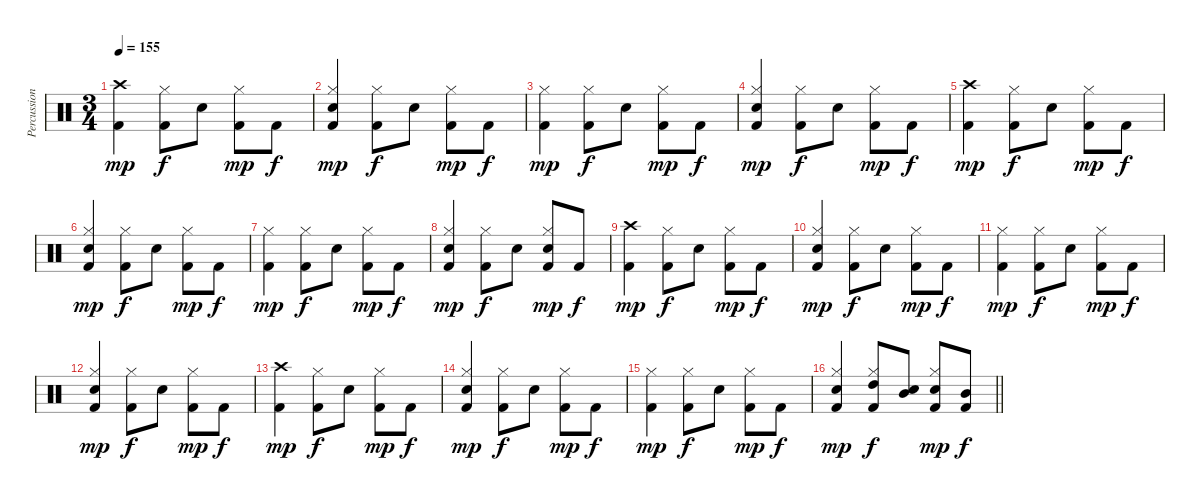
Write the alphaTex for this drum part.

\track ("Percussion" "Percussion") {instrument percussion}
\staff {score}
\articulation defaults
\ts (3 4)
\tempo 155
\clef neutral
\ks c
("Crash high (hit)" "Kick (hit) 2").4{dy mp} ("Hi-Hat (closed)" "Kick (hit) 2").8{dy f} "Snare (hit) 2".8 ("Hi-Hat (closed)" "Kick (hit) 2").8{dy mp} "Kick (hit) 2".8{dy f} |
("Hi-Hat (closed)" "Snare (hit) 2" "Kick (hit) 2").4{dy mp} ("Hi-Hat (closed)" "Kick (hit) 2").8{dy f} "Snare (hit) 2".8 ("Hi-Hat (closed)" "Kick (hit) 2").8{dy mp} "Kick (hit) 2".8{dy f} |
("Hi-Hat (closed)" "Kick (hit) 2").4{dy mp} ("Hi-Hat (closed)" "Kick (hit) 2").8{dy f} "Snare (hit) 2".8 ("Hi-Hat (closed)" "Kick (hit) 2").8{dy mp} "Kick (hit) 2".8{dy f} |
("Hi-Hat (closed)" "Snare (hit) 2" "Kick (hit) 2").4{dy mp} ("Hi-Hat (closed)" "Kick (hit) 2").8{dy f} "Snare (hit) 2".8 ("Hi-Hat (closed)" "Kick (hit) 2").8{dy mp} "Kick (hit) 2".8{dy f} |
("Crash high (hit)" "Kick (hit) 2").4{dy mp} ("Hi-Hat (closed)" "Kick (hit) 2").8{dy f} "Snare (hit) 2".8 ("Hi-Hat (closed)" "Kick (hit) 2").8{dy mp} "Kick (hit) 2".8{dy f} |
("Hi-Hat (closed)" "Snare (hit) 2" "Kick (hit) 2").4{dy mp} ("Hi-Hat (closed)" "Kick (hit) 2").8{dy f} "Snare (hit) 2".8 ("Hi-Hat (closed)" "Kick (hit) 2").8{dy mp} "Kick (hit) 2".8{dy f} |
("Hi-Hat (closed)" "Kick (hit) 2").4{dy mp} ("Hi-Hat (closed)" "Kick (hit) 2").8{dy f} "Snare (hit) 2".8 ("Hi-Hat (closed)" "Kick (hit) 2").8{dy mp} "Kick (hit) 2".8{dy f} |
("Hi-Hat (closed)" "Snare (hit) 2" "Kick (hit) 2").4{dy mp} ("Hi-Hat (closed)" "Kick (hit) 2").8{dy f} "Snare (hit) 2".8 ("Hi-Hat (closed)" "Snare (hit) 2" "Kick (hit) 2").8{dy mp} "Kick (hit) 2".8{dy f} |
("Crash high (hit)" "Kick (hit) 2").4{dy mp} ("Hi-Hat (closed)" "Kick (hit) 2").8{dy f} "Snare (hit) 2".8 ("Hi-Hat (closed)" "Kick (hit) 2").8{dy mp} "Kick (hit) 2".8{dy f} |
("Hi-Hat (closed)" "Snare (hit) 2" "Kick (hit) 2").4{dy mp} ("Hi-Hat (closed)" "Kick (hit) 2").8{dy f} "Snare (hit) 2".8 ("Hi-Hat (closed)" "Kick (hit) 2").8{dy mp} "Kick (hit) 2".8{dy f} |
("Hi-Hat (closed)" "Kick (hit) 2").4{dy mp} ("Hi-Hat (closed)" "Kick (hit) 2").8{dy f} "Snare (hit) 2".8 ("Hi-Hat (closed)" "Kick (hit) 2").8{dy mp} "Kick (hit) 2".8{dy f} |
("Hi-Hat (closed)" "Snare (hit) 2" "Kick (hit) 2").4{dy mp} ("Hi-Hat (closed)" "Kick (hit) 2").8{dy f} "Snare (hit) 2".8 ("Hi-Hat (closed)" "Kick (hit) 2").8{dy mp} "Kick (hit) 2".8{dy f} |
("Crash high (hit)" "Kick (hit) 2").4{dy mp} ("Hi-Hat (closed)" "Kick (hit) 2").8{dy f} "Snare (hit) 2".8 ("Hi-Hat (closed)" "Kick (hit) 2").8{dy mp} "Kick (hit) 2".8{dy f} |
("Hi-Hat (closed)" "Snare (hit) 2" "Kick (hit) 2").4{dy mp} ("Hi-Hat (closed)" "Kick (hit) 2").8{dy f} "Snare (hit) 2".8 ("Hi-Hat (closed)" "Kick (hit) 2").8{dy mp} "Kick (hit) 2".8{dy f} |
("Hi-Hat (closed)" "Kick (hit) 2").4{dy mp} ("Hi-Hat (closed)" "Kick (hit) 2").8{dy f} "Snare (hit) 2".8 ("Hi-Hat (closed)" "Kick (hit) 2").8{dy mp} "Kick (hit) 2".8{dy f} |
\barLineRight lightlight
("Hi-Hat (closed)" "Snare (hit) 2" "Kick (hit) 2").4{dy mp} ("Hi-Hat (closed)" "High Tom (hit)" "Kick (hit) 2").8{dy f} ("Mid Tom (hit)" "Snare (hit) 2").8 ("Hi-Hat (closed)" "Snare (hit) 2" "Kick (hit) 2").8{dy mp} ("Mid Tom (hit)" "Kick (hit) 2").8{dy f}
